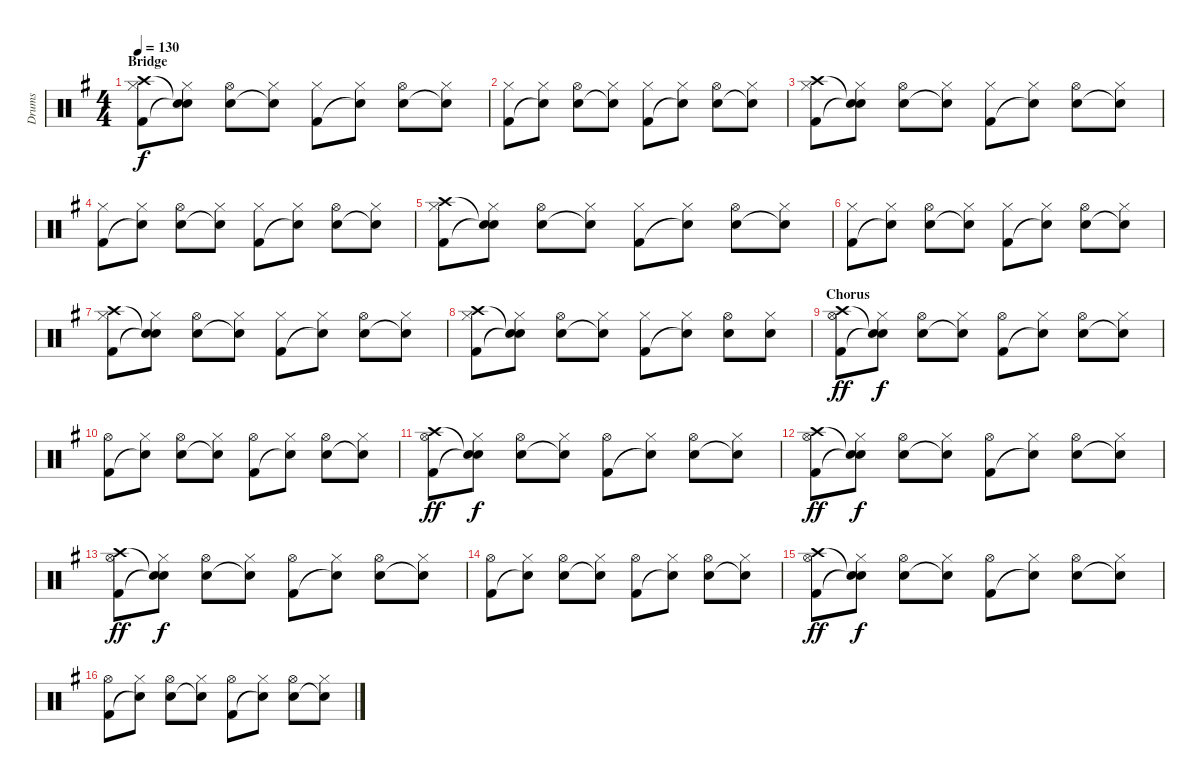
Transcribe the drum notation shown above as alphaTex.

\track ("Drums" "Drums") {instrument percussion}
\staff {score}
\articulation defaults
\ts (4 4)
\section ("" "Bridge")
\tempo 130
\clef neutral
\ks g
("Hi-Hat (closed)" "Crash high (hit)" "Kick (hit) 2").8{dy f} ("Hi-Hat (closed)" "Snare (hit)"{t} "Snare (hit)"{t}).8 ("Hi-Hat (open)" "Electric Snare (hit)").8 ("Hi-Hat (closed)" "Snare (hit)"{t}).8 ("Hi-Hat (closed)" "Kick (hit) 2").8 ("Hi-Hat (closed)" "Snare (hit)"{t}).8 ("Hi-Hat (open)" "Electric Snare (hit)").8 ("Hi-Hat (closed)" "Snare (hit)"{t}).8 |
("Hi-Hat (closed)" "Kick (hit) 2").8 ("Hi-Hat (closed)" "Snare (hit)"{t}).8 ("Hi-Hat (open)" "Electric Snare (hit)").8 ("Hi-Hat (closed)" "Snare (hit)"{t}).8 ("Hi-Hat (closed)" "Kick (hit) 2").8 ("Hi-Hat (closed)" "Snare (hit)"{t}).8 ("Hi-Hat (open)" "Electric Snare (hit)").8 ("Hi-Hat (closed)" "Snare (hit)"{t}).8 |
("Hi-Hat (closed)" "Crash high (hit)" "Kick (hit) 2").8 ("Hi-Hat (closed)" "Snare (hit)"{t} "Snare (hit)"{t}).8 ("Hi-Hat (open)" "Electric Snare (hit)").8 ("Hi-Hat (closed)" "Snare (hit)"{t}).8 ("Hi-Hat (closed)" "Kick (hit) 2").8 ("Hi-Hat (closed)" "Snare (hit)"{t}).8 ("Hi-Hat (open)" "Electric Snare (hit)").8 ("Hi-Hat (closed)" "Snare (hit)"{t}).8 |
("Hi-Hat (closed)" "Kick (hit) 2").8 ("Hi-Hat (closed)" "Snare (hit)"{t}).8 ("Hi-Hat (open)" "Electric Snare (hit)").8 ("Hi-Hat (closed)" "Snare (hit)"{t}).8 ("Hi-Hat (closed)" "Kick (hit) 2").8 ("Hi-Hat (closed)" "Snare (hit)"{t}).8 ("Hi-Hat (open)" "Electric Snare (hit)").8 ("Hi-Hat (closed)" "Snare (hit)"{t}).8 |
("Hi-Hat (closed)" "Crash high (hit)" "Kick (hit) 2").8 ("Hi-Hat (closed)" "Snare (hit)"{t} "Snare (hit)"{t}).8 ("Hi-Hat (open)" "Electric Snare (hit)").8 ("Hi-Hat (closed)" "Snare (hit)"{t}).8 ("Hi-Hat (closed)" "Kick (hit) 2").8 ("Hi-Hat (closed)" "Snare (hit)"{t}).8 ("Hi-Hat (open)" "Electric Snare (hit)").8 ("Hi-Hat (closed)" "Snare (hit)"{t}).8 |
("Hi-Hat (closed)" "Kick (hit) 2").8 ("Hi-Hat (closed)" "Snare (hit)"{t}).8 ("Hi-Hat (open)" "Electric Snare (hit)").8 ("Hi-Hat (closed)" "Snare (hit)"{t}).8 ("Hi-Hat (closed)" "Kick (hit) 2").8 ("Hi-Hat (closed)" "Snare (hit)"{t}).8 ("Hi-Hat (open)" "Electric Snare (hit)").8 ("Hi-Hat (closed)" "Snare (hit)"{t}).8 |
("Hi-Hat (closed)" "Crash high (hit)" "Kick (hit) 2").8 ("Hi-Hat (closed)" "Snare (hit)"{t} "Snare (hit)"{t}).8 ("Hi-Hat (open)" "Electric Snare (hit)").8 ("Hi-Hat (closed)" "Snare (hit)"{t}).8 ("Hi-Hat (closed)" "Kick (hit) 2").8 ("Hi-Hat (closed)" "Snare (hit)"{t}).8 ("Hi-Hat (open)" "Electric Snare (hit)").8 ("Hi-Hat (closed)" "Snare (hit)"{t}).8 |
("Hi-Hat (closed)" "Crash high (hit)" "Kick (hit) 2").8 ("Hi-Hat (closed)" "Snare (hit)"{t} "Snare (hit)"{t}).8 ("Hi-Hat (open)" "Electric Snare (hit)").8 ("Hi-Hat (closed)" "Snare (hit)"{t}).8 ("Hi-Hat (closed)" "Kick (hit) 2").8 ("Hi-Hat (closed)" "Snare (hit)"{t}).8 ("Hi-Hat (open)" "Electric Snare (hit)").8 ("Hi-Hat (closed)" "Electric Snare (hit)").8 |
\section ("" "Chorus")
("Hi-Hat (open)" "Crash high (hit)" "Kick (hit) 2").8{dy ff} ("Hi-Hat (closed)" "Snare (hit)"{t} "Snare (hit)"{t}).8{dy f} ("Hi-Hat (open)" "Electric Snare (hit)").8 ("Hi-Hat (closed)" "Snare (hit)"{t}).8 ("Hi-Hat (open)" "Kick (hit) 2").8 ("Hi-Hat (closed)" "Snare (hit)"{t}).8 ("Hi-Hat (open)" "Electric Snare (hit)").8 ("Hi-Hat (closed)" "Snare (hit)"{t}).8 |
("Hi-Hat (open)" "Kick (hit) 2").8 ("Hi-Hat (closed)" "Snare (hit)"{t}).8 ("Hi-Hat (open)" "Electric Snare (hit)").8 ("Hi-Hat (closed)" "Snare (hit)"{t}).8 ("Hi-Hat (open)" "Kick (hit) 2").8 ("Hi-Hat (closed)" "Snare (hit)"{t}).8 ("Hi-Hat (open)" "Electric Snare (hit)").8 ("Hi-Hat (closed)" "Snare (hit)"{t}).8 |
("Hi-Hat (open)" "Crash high (hit)" "Kick (hit) 2").8{dy ff} ("Hi-Hat (closed)" "Snare (hit)"{t} "Snare (hit)"{t}).8{dy f} ("Hi-Hat (open)" "Electric Snare (hit)").8 ("Hi-Hat (closed)" "Snare (hit)"{t}).8 ("Hi-Hat (open)" "Kick (hit) 2").8 ("Hi-Hat (closed)" "Snare (hit)"{t}).8 ("Hi-Hat (open)" "Electric Snare (hit)").8 ("Hi-Hat (closed)" "Snare (hit)"{t}).8 |
("Hi-Hat (open)" "Crash high (hit)" "Kick (hit) 2").8{dy ff} ("Hi-Hat (closed)" "Snare (hit)"{t} "Snare (hit)"{t}).8{dy f} ("Hi-Hat (open)" "Electric Snare (hit)").8 ("Hi-Hat (closed)" "Snare (hit)"{t}).8 ("Hi-Hat (open)" "Kick (hit) 2").8 ("Hi-Hat (closed)" "Snare (hit)"{t}).8 ("Hi-Hat (open)" "Electric Snare (hit)").8 ("Hi-Hat (closed)" "Snare (hit)"{t}).8 |
("Hi-Hat (open)" "Crash high (hit)" "Kick (hit) 2").8{dy ff} ("Hi-Hat (closed)" "Snare (hit)"{t} "Snare (hit)"{t}).8{dy f} ("Hi-Hat (open)" "Electric Snare (hit)").8 ("Hi-Hat (closed)" "Snare (hit)"{t}).8 ("Hi-Hat (open)" "Kick (hit) 2").8 ("Hi-Hat (closed)" "Snare (hit)"{t}).8 ("Hi-Hat (open)" "Electric Snare (hit)").8 ("Hi-Hat (closed)" "Snare (hit)"{t}).8 |
("Hi-Hat (open)" "Kick (hit) 2").8 ("Hi-Hat (closed)" "Snare (hit)"{t}).8 ("Hi-Hat (open)" "Electric Snare (hit)").8 ("Hi-Hat (closed)" "Snare (hit)"{t}).8 ("Hi-Hat (open)" "Kick (hit) 2").8 ("Hi-Hat (closed)" "Snare (hit)"{t}).8 ("Hi-Hat (open)" "Electric Snare (hit)").8 ("Hi-Hat (closed)" "Snare (hit)"{t}).8 |
("Hi-Hat (open)" "Crash high (hit)" "Kick (hit) 2").8{dy ff} ("Hi-Hat (closed)" "Snare (hit)"{t} "Snare (hit)"{t}).8{dy f} ("Hi-Hat (open)" "Electric Snare (hit)").8 ("Hi-Hat (closed)" "Snare (hit)"{t}).8 ("Hi-Hat (open)" "Kick (hit) 2").8 ("Hi-Hat (closed)" "Snare (hit)"{t}).8 ("Hi-Hat (open)" "Electric Snare (hit)").8 ("Hi-Hat (closed)" "Snare (hit)"{t}).8 |
("Hi-Hat (open)" "Kick (hit) 2").8 ("Hi-Hat (closed)" "Snare (hit)"{t}).8 ("Hi-Hat (open)" "Electric Snare (hit)").8 ("Hi-Hat (closed)" "Snare (hit)"{t}).8 ("Hi-Hat (open)" "Kick (hit) 2").8 ("Hi-Hat (closed)" "Snare (hit)"{t}).8 ("Hi-Hat (open)" "Electric Snare (hit)").8 ("Hi-Hat (closed)" "Snare (hit)"{t}).8
